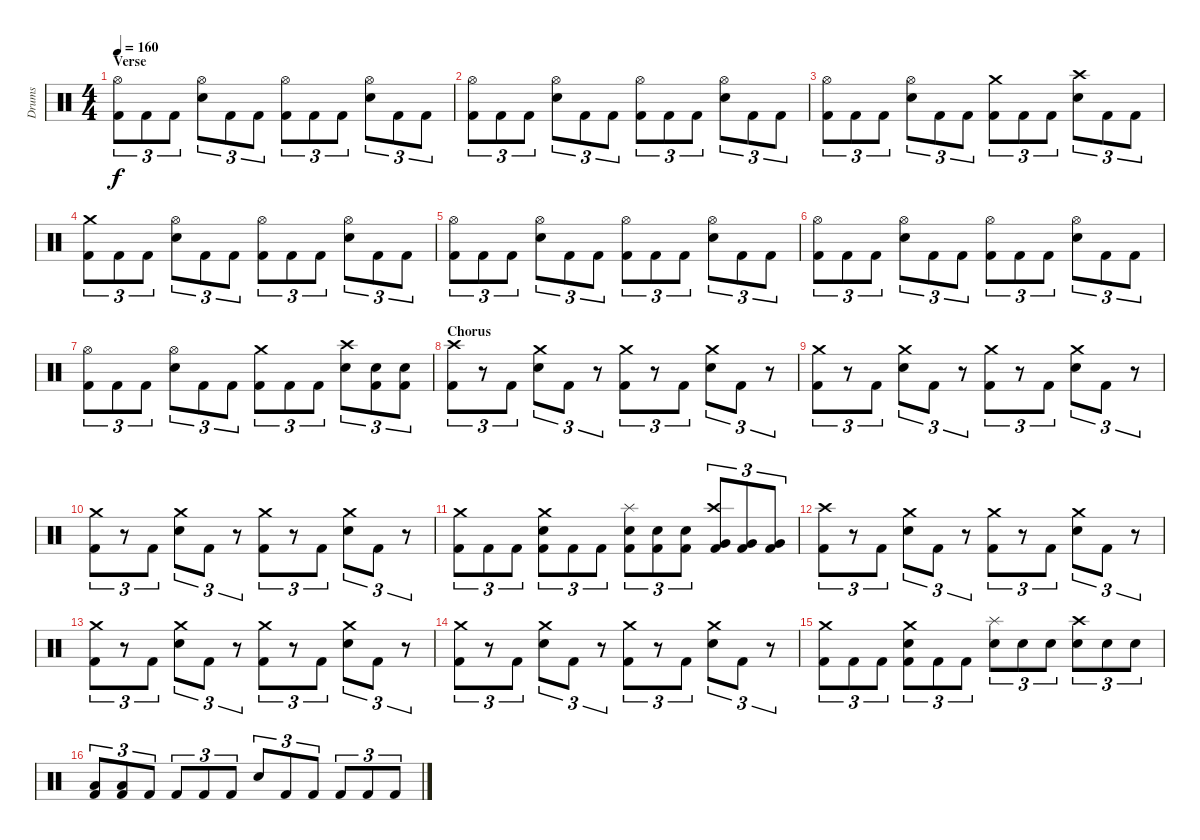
\track ("Drums" "Drums") {instrument percussion}
\staff {score}
\articulation defaults
\ts (4 4)
\section ("" "Verse")
\tempo 160
\clef neutral
\ks c
("Hi-Hat (open)" "Kick (hit) 2").8{tu (3 2) dy f} "Kick (hit) 2".8{tu (3 2)} "Kick (hit) 2".8{tu (3 2)} ("Hi-Hat (open)" "Electric Snare (hit)").8{tu (3 2)} "Kick (hit) 2".8{tu (3 2)} "Kick (hit) 2".8{tu (3 2)} ("Hi-Hat (open)" "Kick (hit) 2").8{tu (3 2)} "Kick (hit) 2".8{tu (3 2)} "Kick (hit) 2".8{tu (3 2)} ("Hi-Hat (open)" "Electric Snare (hit)").8{tu (3 2)} "Kick (hit) 2".8{tu (3 2)} "Kick (hit) 2".8{tu (3 2)} |
("Hi-Hat (open)" "Kick (hit) 2").8{tu (3 2)} "Kick (hit) 2".8{tu (3 2)} "Kick (hit) 2".8{tu (3 2)} ("Hi-Hat (open)" "Electric Snare (hit)").8{tu (3 2)} "Kick (hit) 2".8{tu (3 2)} "Kick (hit) 2".8{tu (3 2)} ("Hi-Hat (open)" "Kick (hit) 2").8{tu (3 2)} "Kick (hit) 2".8{tu (3 2)} "Kick (hit) 2".8{tu (3 2)} ("Hi-Hat (open)" "Electric Snare (hit)").8{tu (3 2)} "Kick (hit) 2".8{tu (3 2)} "Kick (hit) 2".8{tu (3 2)} |
("Hi-Hat (open)" "Kick (hit) 2").8{tu (3 2)} "Kick (hit) 2".8{tu (3 2)} "Kick (hit) 2".8{tu (3 2)} ("Hi-Hat (open)" "Electric Snare (hit)").8{tu (3 2)} "Kick (hit) 2".8{tu (3 2)} "Kick (hit) 2".8{tu (3 2)} ("Crash medium (hit)" "Kick (hit) 2").8{tu (3 2)} "Kick (hit) 2".8{tu (3 2)} "Kick (hit) 2".8{tu (3 2)} ("Crash high (hit)" "Electric Snare (hit)").8{tu (3 2)} "Kick (hit) 2".8{tu (3 2)} "Kick (hit) 2".8{tu (3 2)} |
("Crash medium (hit)" "Kick (hit) 2").8{tu (3 2)} "Kick (hit) 2".8{tu (3 2)} "Kick (hit) 2".8{tu (3 2)} ("Hi-Hat (open)" "Electric Snare (hit)").8{tu (3 2)} "Kick (hit) 2".8{tu (3 2)} "Kick (hit) 2".8{tu (3 2)} ("Hi-Hat (open)" "Kick (hit) 2").8{tu (3 2)} "Kick (hit) 2".8{tu (3 2)} "Kick (hit) 2".8{tu (3 2)} ("Hi-Hat (open)" "Electric Snare (hit)").8{tu (3 2)} "Kick (hit) 2".8{tu (3 2)} "Kick (hit) 2".8{tu (3 2)} |
("Hi-Hat (open)" "Kick (hit) 2").8{tu (3 2)} "Kick (hit) 2".8{tu (3 2)} "Kick (hit) 2".8{tu (3 2)} ("Hi-Hat (open)" "Electric Snare (hit)").8{tu (3 2)} "Kick (hit) 2".8{tu (3 2)} "Kick (hit) 2".8{tu (3 2)} ("Hi-Hat (open)" "Kick (hit) 2").8{tu (3 2)} "Kick (hit) 2".8{tu (3 2)} "Kick (hit) 2".8{tu (3 2)} ("Hi-Hat (open)" "Electric Snare (hit)").8{tu (3 2)} "Kick (hit) 2".8{tu (3 2)} "Kick (hit) 2".8{tu (3 2)} |
("Hi-Hat (open)" "Kick (hit) 2").8{tu (3 2)} "Kick (hit) 2".8{tu (3 2)} "Kick (hit) 2".8{tu (3 2)} ("Hi-Hat (open)" "Electric Snare (hit)").8{tu (3 2)} "Kick (hit) 2".8{tu (3 2)} "Kick (hit) 2".8{tu (3 2)} ("Hi-Hat (open)" "Kick (hit) 2").8{tu (3 2)} "Kick (hit) 2".8{tu (3 2)} "Kick (hit) 2".8{tu (3 2)} ("Hi-Hat (open)" "Electric Snare (hit)").8{tu (3 2)} "Kick (hit) 2".8{tu (3 2)} "Kick (hit) 2".8{tu (3 2)} |
("Hi-Hat (open)" "Kick (hit) 2").8{tu (3 2)} "Kick (hit) 2".8{tu (3 2)} "Kick (hit) 2".8{tu (3 2)} ("Hi-Hat (open)" "Electric Snare (hit)").8{tu (3 2)} "Kick (hit) 2".8{tu (3 2)} "Kick (hit) 2".8{tu (3 2)} ("Crash medium (hit)" "Kick (hit) 2").8{tu (3 2)} "Kick (hit) 2".8{tu (3 2)} "Kick (hit) 2".8{tu (3 2)} ("Crash high (hit)" "Electric Snare (hit)").8{tu (3 2)} ("Electric Snare (hit)" "Kick (hit) 2").8{tu (3 2)} ("Electric Snare (hit)" "Kick (hit) 2").8{tu (3 2)} |
\section ("" "Chorus")
("Crash high (hit)" "Kick (hit) 2").8{tu (3 2)} r.8{tu (3 2)} "Kick (hit) 2".8{tu (3 2)} ("Crash medium (hit)" "Electric Snare (hit)").8{tu (3 2)} "Kick (hit) 2".8{tu (3 2)} r.8{tu (3 2)} ("Crash medium (hit)" "Kick (hit) 2").8{tu (3 2)} r.8{tu (3 2)} "Kick (hit) 2".8{tu (3 2)} ("Crash medium (hit)" "Electric Snare (hit)").8{tu (3 2)} "Kick (hit) 2".8{tu (3 2)} r.8{tu (3 2)} |
("Crash medium (hit)" "Kick (hit) 2").8{tu (3 2)} r.8{tu (3 2)} "Kick (hit) 2".8{tu (3 2)} ("Crash medium (hit)" "Electric Snare (hit)").8{tu (3 2)} "Kick (hit) 2".8{tu (3 2)} r.8{tu (3 2)} ("Crash medium (hit)" "Kick (hit) 2").8{tu (3 2)} r.8{tu (3 2)} "Kick (hit) 2".8{tu (3 2)} ("Crash medium (hit)" "Electric Snare (hit)").8{tu (3 2)} "Kick (hit) 2".8{tu (3 2)} r.8{tu (3 2)} |
("Crash medium (hit)" "Kick (hit) 2").8{tu (3 2)} r.8{tu (3 2)} "Kick (hit) 2".8{tu (3 2)} ("Crash medium (hit)" "Electric Snare (hit)").8{tu (3 2)} "Kick (hit) 2".8{tu (3 2)} r.8{tu (3 2)} ("Crash medium (hit)" "Kick (hit) 2").8{tu (3 2)} r.8{tu (3 2)} "Kick (hit) 2".8{tu (3 2)} ("Crash medium (hit)" "Electric Snare (hit)").8{tu (3 2)} "Kick (hit) 2".8{tu (3 2)} r.8{tu (3 2)} |
("Crash medium (hit)" "Kick (hit) 2").8{tu (3 2)} "Kick (hit) 2".8{tu (3 2)} "Kick (hit) 2".8{tu (3 2)} ("Crash medium (hit)" "Electric Snare (hit)" "Kick (hit) 2").8{tu (3 2)} "Kick (hit) 2".8{tu (3 2)} "Kick (hit) 2".8{tu (3 2)} ("Splash (hit)" "Electric Snare (hit)" "Kick (hit) 2").8{tu (3 2)} ("Electric Snare (hit)" "Kick (hit) 2").8{tu (3 2)} ("Electric Snare (hit)" "Kick (hit) 2").8{tu (3 2)} ("Crash high (hit)" "Very Low Tom (hit)" "Kick (hit) 2").8{tu (3 2)} ("Very Low Tom (hit)" "Kick (hit) 2").8{tu (3 2)} ("Very Low Tom (hit)" "Kick (hit) 2").8{tu (3 2)} |
("Crash high (hit)" "Kick (hit) 2").8{tu (3 2)} r.8{tu (3 2)} "Kick (hit) 2".8{tu (3 2)} ("Crash medium (hit)" "Electric Snare (hit)").8{tu (3 2)} "Kick (hit) 2".8{tu (3 2)} r.8{tu (3 2)} ("Crash medium (hit)" "Kick (hit) 2").8{tu (3 2)} r.8{tu (3 2)} "Kick (hit) 2".8{tu (3 2)} ("Crash medium (hit)" "Electric Snare (hit)").8{tu (3 2)} "Kick (hit) 2".8{tu (3 2)} r.8{tu (3 2)} |
("Crash medium (hit)" "Kick (hit) 2").8{tu (3 2)} r.8{tu (3 2)} "Kick (hit) 2".8{tu (3 2)} ("Crash medium (hit)" "Electric Snare (hit)").8{tu (3 2)} "Kick (hit) 2".8{tu (3 2)} r.8{tu (3 2)} ("Crash medium (hit)" "Kick (hit) 2").8{tu (3 2)} r.8{tu (3 2)} "Kick (hit) 2".8{tu (3 2)} ("Crash medium (hit)" "Electric Snare (hit)").8{tu (3 2)} "Kick (hit) 2".8{tu (3 2)} r.8{tu (3 2)} |
("Crash medium (hit)" "Kick (hit) 2").8{tu (3 2)} r.8{tu (3 2)} "Kick (hit) 2".8{tu (3 2)} ("Crash medium (hit)" "Electric Snare (hit)").8{tu (3 2)} "Kick (hit) 2".8{tu (3 2)} r.8{tu (3 2)} ("Crash medium (hit)" "Kick (hit) 2").8{tu (3 2)} r.8{tu (3 2)} "Kick (hit) 2".8{tu (3 2)} ("Crash medium (hit)" "Electric Snare (hit)").8{tu (3 2)} "Kick (hit) 2".8{tu (3 2)} r.8{tu (3 2)} |
("Crash medium (hit)" "Kick (hit) 2").8{tu (3 2)} "Kick (hit) 2".8{tu (3 2)} "Kick (hit) 2".8{tu (3 2)} ("Crash medium (hit)" "Electric Snare (hit)" "Kick (hit) 2").8{tu (3 2)} "Kick (hit) 2".8{tu (3 2)} "Kick (hit) 2".8{tu (3 2)} ("Splash (hit)" "Electric Snare (hit)").8{tu (3 2)} "Electric Snare (hit)".8{tu (3 2)} "Electric Snare (hit)".8{tu (3 2)} ("Crash high (hit)" "Electric Snare (hit)").8{tu (3 2)} "Electric Snare (hit)".8{tu (3 2)} "Electric Snare (hit)".8{tu (3 2)} |
("Low Tom (hit)" "Kick (hit) 2").8{tu (3 2)} ("Low Tom (hit)" "Kick (hit) 2").8{tu (3 2)} "Kick (hit) 2".8{tu (3 2)} "Kick (hit) 2".8{tu (3 2)} "Kick (hit) 2".8{tu (3 2)} "Kick (hit) 2".8{tu (3 2)} "Electric Snare (hit)".8{tu (3 2)} "Kick (hit) 2".8{tu (3 2)} "Kick (hit) 2".8{tu (3 2)} "Kick (hit) 2".8{tu (3 2)} "Kick (hit) 2".8{tu (3 2)} "Kick (hit) 2".8{tu (3 2)}
